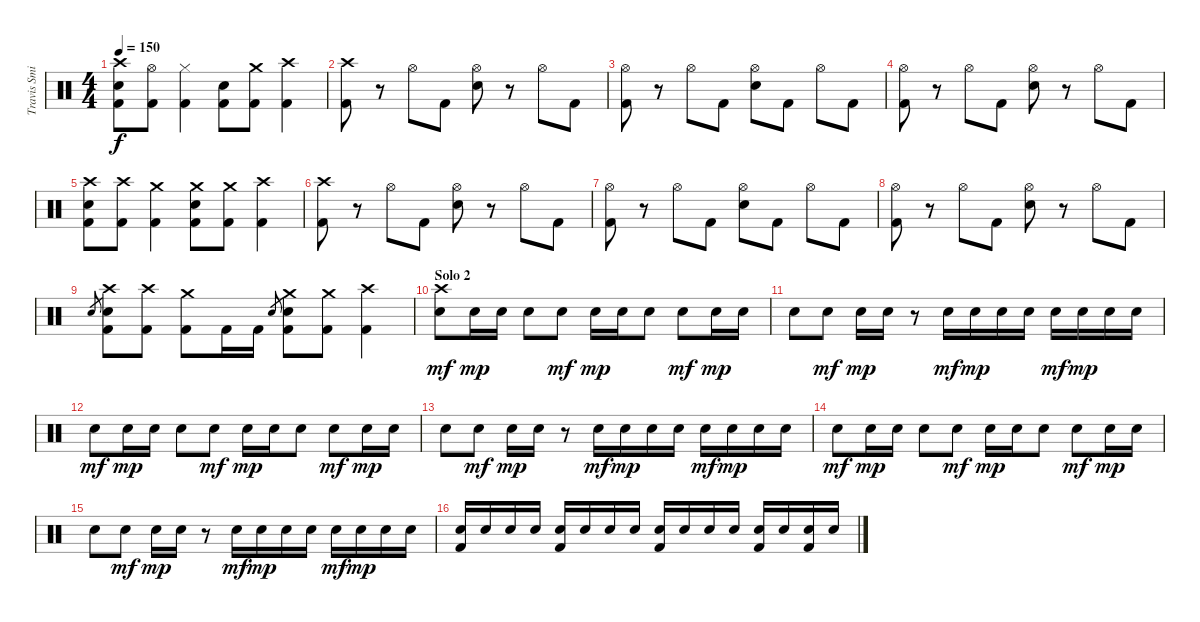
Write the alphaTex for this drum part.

\track ("Travis Smith" "Travis Smi") {instrument percussion}
\staff {score}
\articulation defaults
\ts (4 4)
\tempo 150
\clef neutral
\ks c
("Crash high (hit)" "Electric Snare (hit)" "Kick (hit) 2").8{dy f} ("Hi-Hat (open)" "Kick (hit) 2").8 ("Hi-Hat (closed)" "Kick (hit) 2").4 ("Electric Snare (hit)" "Kick (hit) 2").8 ("Crash medium (hit)" "Kick (hit) 2").8 ("Crash high (hit)" "Kick (hit) 2").4 |
("Crash high (hit)" "Kick (hit) 2").8 r.8 "Hi-Hat (open)".8 "Kick (hit) 2".8 ("Hi-Hat (open)" "Electric Snare (hit)").8 r.8 "Hi-Hat (open)".8 "Kick (hit) 2".8 |
("Hi-Hat (open)" "Kick (hit) 2").8 r.8 "Hi-Hat (open)".8 "Kick (hit) 2".8 ("Hi-Hat (open)" "Electric Snare (hit)").8 "Kick (hit) 2".8 "Hi-Hat (open)".8 "Kick (hit) 2".8 |
("Hi-Hat (open)" "Kick (hit) 2").8 r.8 "Hi-Hat (open)".8 "Kick (hit) 2".8 ("Hi-Hat (open)" "Electric Snare (hit)").8 r.8 "Hi-Hat (open)".8 "Kick (hit) 2".8 |
("Crash high (hit)" "Electric Snare (hit)" "Kick (hit) 2").8 ("Crash high (hit)" "Kick (hit) 2").8 ("Crash medium (hit)" "Kick (hit) 2").4 ("Crash medium (hit)" "Electric Snare (hit)" "Kick (hit) 2").8 ("Crash medium (hit)" "Kick (hit) 2").8 ("Crash high (hit)" "Kick (hit) 2").4 |
("Crash high (hit)" "Kick (hit) 2").8 r.8 "Hi-Hat (open)".8 "Kick (hit) 2".8 ("Hi-Hat (open)" "Electric Snare (hit)").8 r.8 "Hi-Hat (open)".8 "Kick (hit) 2".8 |
("Hi-Hat (open)" "Kick (hit) 2").8 r.8 "Hi-Hat (open)".8 "Kick (hit) 2".8 ("Hi-Hat (open)" "Electric Snare (hit)").8 "Kick (hit) 2".8 "Hi-Hat (open)".8 "Kick (hit) 2".8 |
("Hi-Hat (open)" "Kick (hit) 2").8 r.8 "Hi-Hat (open)".8 "Kick (hit) 2".8 ("Hi-Hat (open)" "Electric Snare (hit)").8 r.8 "Hi-Hat (open)".8 "Kick (hit) 2".8 |
"Electric Snare (hit)".8{gr} ("Crash high (hit)" "Electric Snare (hit)" "Kick (hit) 2").8 ("Crash high (hit)" "Kick (hit) 2").8 ("Crash medium (hit)" "Kick (hit) 2").8 "Kick (hit) 2".16 "Kick (hit) 2".16 "Electric Snare (hit)".8{gr} ("Crash medium (hit)" "Electric Snare (hit)" "Kick (hit) 2").8 ("Crash medium (hit)" "Kick (hit) 2").8 ("Crash high (hit)" "Kick (hit) 2").4 |
\section ("" "Solo 2")
("Crash high (hit)" "Electric Snare (hit)").8{dy mf} "Electric Snare (hit)".16{dy mp} "Electric Snare (hit)".16 "Electric Snare (hit)".8 "Electric Snare (hit)".8{dy mf} "Electric Snare (hit)".16{dy mp} "Electric Snare (hit)".16 "Electric Snare (hit)".8 "Electric Snare (hit)".8{dy mf} "Electric Snare (hit)".16{dy mp} "Electric Snare (hit)".16 |
"Electric Snare (hit)".8 "Electric Snare (hit)".8{dy mf} "Electric Snare (hit)".16{dy mp} "Electric Snare (hit)".16 r.8 "Electric Snare (hit)".16{dy mf} "Electric Snare (hit)".16{dy mp} "Electric Snare (hit)".16 "Electric Snare (hit)".16 "Electric Snare (hit)".16{dy mf} "Electric Snare (hit)".16{dy mp} "Electric Snare (hit)".16 "Electric Snare (hit)".16 |
"Electric Snare (hit)".8{dy mf} "Electric Snare (hit)".16{dy mp} "Electric Snare (hit)".16 "Electric Snare (hit)".8 "Electric Snare (hit)".8{dy mf} "Electric Snare (hit)".16{dy mp} "Electric Snare (hit)".16 "Electric Snare (hit)".8 "Electric Snare (hit)".8{dy mf} "Electric Snare (hit)".16{dy mp} "Electric Snare (hit)".16 |
"Electric Snare (hit)".8 "Electric Snare (hit)".8{dy mf} "Electric Snare (hit)".16{dy mp} "Electric Snare (hit)".16 r.8 "Electric Snare (hit)".16{dy mf} "Electric Snare (hit)".16{dy mp} "Electric Snare (hit)".16 "Electric Snare (hit)".16 "Electric Snare (hit)".16{dy mf} "Electric Snare (hit)".16{dy mp} "Electric Snare (hit)".16 "Electric Snare (hit)".16 |
"Electric Snare (hit)".8{dy mf} "Electric Snare (hit)".16{dy mp} "Electric Snare (hit)".16 "Electric Snare (hit)".8 "Electric Snare (hit)".8{dy mf} "Electric Snare (hit)".16{dy mp} "Electric Snare (hit)".16 "Electric Snare (hit)".8 "Electric Snare (hit)".8{dy mf} "Electric Snare (hit)".16{dy mp} "Electric Snare (hit)".16 |
"Electric Snare (hit)".8 "Electric Snare (hit)".8{dy mf} "Electric Snare (hit)".16{dy mp} "Electric Snare (hit)".16 r.8 "Electric Snare (hit)".16{dy mf} "Electric Snare (hit)".16{dy mp} "Electric Snare (hit)".16 "Electric Snare (hit)".16 "Electric Snare (hit)".16{dy mf} "Electric Snare (hit)".16{dy mp} "Electric Snare (hit)".16 "Electric Snare (hit)".16 |
("Electric Snare (hit)" "Kick (hit) 2").16 "Electric Snare (hit)".16 "Electric Snare (hit)".16 "Electric Snare (hit)".16 ("Electric Snare (hit)" "Kick (hit) 2").16 "Electric Snare (hit)".16 "Electric Snare (hit)".16 "Electric Snare (hit)".16 ("Electric Snare (hit)" "Kick (hit) 2").16 "Electric Snare (hit)".16 "Electric Snare (hit)".16 "Electric Snare (hit)".16 ("Electric Snare (hit)" "Kick (hit) 2").16 "Electric Snare (hit)".16 ("Electric Snare (hit)" "Kick (hit) 2").16 "Electric Snare (hit)".16
